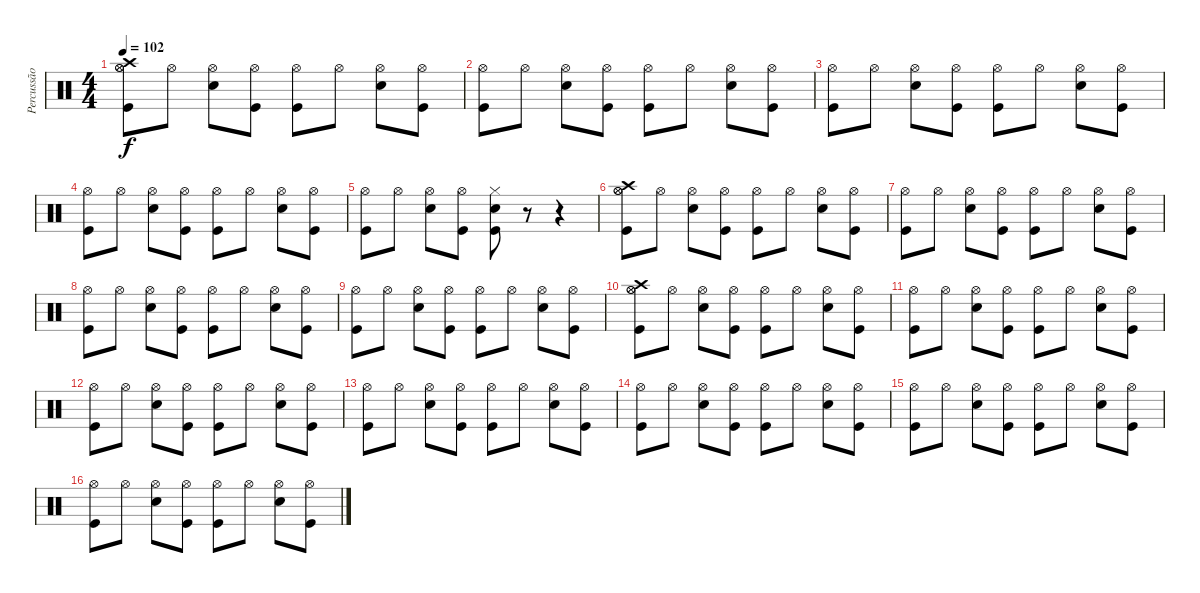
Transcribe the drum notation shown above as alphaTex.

\track ("Percussão" "Percussão") {instrument percussion}
\staff {score}
\articulation defaults
\ts (4 4)
\tempo 102
\clef neutral
\ks c
("Hi-Hat (open)" "Crash high (hit)" "Hi-Hat (open)" "Kick (hit)").8{dy f} "Hi-Hat (open)".8 ("Snare (hit) 2" "Hi-Hat (open)").8 ("Hi-Hat (open)" "Kick (hit)").8 ("Hi-Hat (open)" "Kick (hit)").8 "Hi-Hat (open)".8 ("Hi-Hat (open)" "Snare (hit) 2").8 ("Hi-Hat (open)" "Kick (hit)").8 |
("Hi-Hat (open)" "Kick (hit)").8 "Hi-Hat (open)".8 ("Snare (hit) 2" "Hi-Hat (open)").8 ("Hi-Hat (open)" "Kick (hit)").8 ("Hi-Hat (open)" "Kick (hit)").8 "Hi-Hat (open)".8 ("Hi-Hat (open)" "Snare (hit) 2").8 ("Hi-Hat (open)" "Kick (hit)").8 |
("Hi-Hat (open)" "Kick (hit)").8 "Hi-Hat (open)".8 ("Snare (hit) 2" "Hi-Hat (open)").8 ("Hi-Hat (open)" "Kick (hit)").8 ("Hi-Hat (open)" "Kick (hit)").8 "Hi-Hat (open)".8 ("Hi-Hat (open)" "Snare (hit) 2").8 ("Hi-Hat (open)" "Kick (hit)").8 |
("Hi-Hat (open)" "Kick (hit)").8 "Hi-Hat (open)".8 ("Snare (hit) 2" "Hi-Hat (open)").8 ("Hi-Hat (open)" "Kick (hit)").8 ("Hi-Hat (open)" "Kick (hit)").8 "Hi-Hat (open)".8 ("Hi-Hat (open)" "Snare (hit) 2").8 ("Hi-Hat (open)" "Kick (hit)").8 |
("Hi-Hat (open)" "Kick (hit)").8 "Hi-Hat (open)".8 ("Snare (hit) 2" "Hi-Hat (open)").8 ("Hi-Hat (open)" "Kick (hit)").8 ("Kick (hit)" "Snare (hit) 2" "Hi-Hat (closed)").8 r.8 r.4 |
("Hi-Hat (open)" "Crash high (hit)" "Hi-Hat (open)" "Kick (hit)").8 "Hi-Hat (open)".8 ("Snare (hit) 2" "Hi-Hat (open)").8 ("Hi-Hat (open)" "Kick (hit)").8 ("Hi-Hat (open)" "Kick (hit)").8 "Hi-Hat (open)".8 ("Hi-Hat (open)" "Snare (hit) 2").8 ("Hi-Hat (open)" "Kick (hit)").8 |
("Hi-Hat (open)" "Kick (hit)").8 "Hi-Hat (open)".8 ("Snare (hit) 2" "Hi-Hat (open)").8 ("Hi-Hat (open)" "Kick (hit)").8 ("Hi-Hat (open)" "Kick (hit)").8 "Hi-Hat (open)".8 ("Hi-Hat (open)" "Snare (hit) 2").8 ("Hi-Hat (open)" "Kick (hit)").8 |
("Hi-Hat (open)" "Kick (hit)").8 "Hi-Hat (open)".8 ("Snare (hit) 2" "Hi-Hat (open)").8 ("Hi-Hat (open)" "Kick (hit)").8 ("Hi-Hat (open)" "Kick (hit)").8 "Hi-Hat (open)".8 ("Hi-Hat (open)" "Snare (hit) 2").8 ("Hi-Hat (open)" "Kick (hit)").8 |
("Hi-Hat (open)" "Kick (hit)").8 "Hi-Hat (open)".8 ("Snare (hit) 2" "Hi-Hat (open)").8 ("Hi-Hat (open)" "Kick (hit)").8 ("Hi-Hat (open)" "Kick (hit)").8 "Hi-Hat (open)".8 ("Hi-Hat (open)" "Snare (hit) 2").8 ("Hi-Hat (open)" "Kick (hit)").8 |
("Hi-Hat (open)" "Crash high (hit)" "Hi-Hat (open)" "Kick (hit)").8 "Hi-Hat (open)".8 ("Snare (hit) 2" "Hi-Hat (open)").8 ("Hi-Hat (open)" "Kick (hit)").8 ("Hi-Hat (open)" "Kick (hit)").8 "Hi-Hat (open)".8 ("Hi-Hat (open)" "Snare (hit) 2").8 ("Hi-Hat (open)" "Kick (hit)").8 |
("Hi-Hat (open)" "Kick (hit)").8 "Hi-Hat (open)".8 ("Snare (hit) 2" "Hi-Hat (open)").8 ("Hi-Hat (open)" "Kick (hit)").8 ("Hi-Hat (open)" "Kick (hit)").8 "Hi-Hat (open)".8 ("Hi-Hat (open)" "Snare (hit) 2").8 ("Hi-Hat (open)" "Kick (hit)").8 |
("Hi-Hat (open)" "Kick (hit)").8 "Hi-Hat (open)".8 ("Snare (hit) 2" "Hi-Hat (open)").8 ("Hi-Hat (open)" "Kick (hit)").8 ("Hi-Hat (open)" "Kick (hit)").8 "Hi-Hat (open)".8 ("Hi-Hat (open)" "Snare (hit) 2").8 ("Hi-Hat (open)" "Kick (hit)").8 |
("Hi-Hat (open)" "Kick (hit)").8 "Hi-Hat (open)".8 ("Snare (hit) 2" "Hi-Hat (open)").8 ("Hi-Hat (open)" "Kick (hit)").8 ("Hi-Hat (open)" "Kick (hit)").8 "Hi-Hat (open)".8 ("Hi-Hat (open)" "Snare (hit) 2").8 ("Hi-Hat (open)" "Kick (hit)").8 |
("Hi-Hat (open)" "Kick (hit)").8 "Hi-Hat (open)".8 ("Snare (hit) 2" "Hi-Hat (open)").8 ("Hi-Hat (open)" "Kick (hit)").8 ("Hi-Hat (open)" "Kick (hit)").8 "Hi-Hat (open)".8 ("Hi-Hat (open)" "Snare (hit) 2").8 ("Hi-Hat (open)" "Kick (hit)").8 |
("Hi-Hat (open)" "Kick (hit)").8 "Hi-Hat (open)".8 ("Snare (hit) 2" "Hi-Hat (open)").8 ("Hi-Hat (open)" "Kick (hit)").8 ("Hi-Hat (open)" "Kick (hit)").8 "Hi-Hat (open)".8 ("Hi-Hat (open)" "Snare (hit) 2").8 ("Hi-Hat (open)" "Kick (hit)").8 |
("Hi-Hat (open)" "Kick (hit)").8 "Hi-Hat (open)".8 ("Snare (hit) 2" "Hi-Hat (open)").8 ("Hi-Hat (open)" "Kick (hit)").8 ("Hi-Hat (open)" "Kick (hit)").8 "Hi-Hat (open)".8 ("Hi-Hat (open)" "Snare (hit) 2").8 ("Hi-Hat (open)" "Kick (hit)").8
